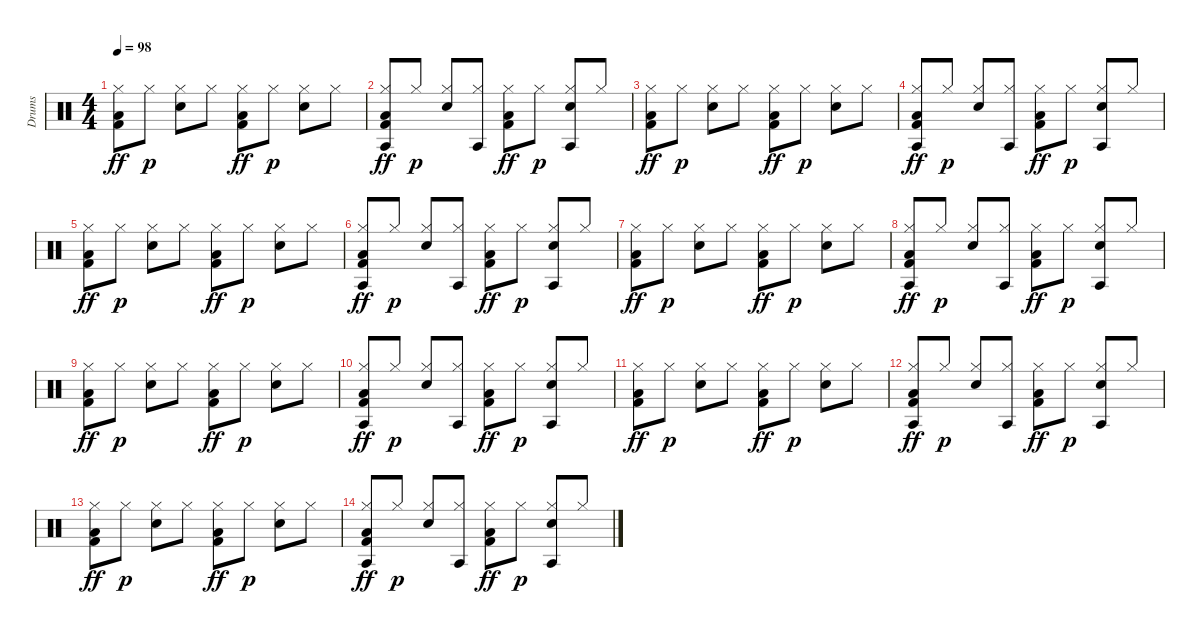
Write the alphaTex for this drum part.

\track ("Drums" "Drums") {instrument percussion}
\staff {score}
\articulation defaults
\ts (4 4)
\tempo 98
\clef neutral
\ks c
("Hi-Hat (closed)" "Low Floor Tom (hit)" "Kick (hit) 2").8{dy ff} "Hi-Hat (closed)".8{dy p} ("Hi-Hat (closed)" "Snare (hit) 2").8 "Hi-Hat (closed)".8 ("Hi-Hat (closed)" "Low Floor Tom (hit)" "Kick (hit) 2").8{dy ff} "Hi-Hat (closed)".8{dy p} ("Hi-Hat (closed)" "Snare (hit) 2").8 "Hi-Hat (closed)".8 |
("Agogo tow (hit)" "Hi-Hat (closed)" "Low Floor Tom (hit)" "Kick (hit) 2").8{dy ff} "Hi-Hat (closed)".8{dy p} ("Hi-Hat (closed)" "Snare (hit) 2").8 ("Agogo tow (hit)" "Hi-Hat (closed)").8 ("Hi-Hat (closed)" "Low Floor Tom (hit)" "Kick (hit) 2").8{dy ff} "Hi-Hat (closed)".8{dy p} ("Agogo tow (hit)" "Hi-Hat (closed)" "Snare (hit) 2").8 "Hi-Hat (closed)".8 |
("Hi-Hat (closed)" "Low Floor Tom (hit)" "Kick (hit) 2").8{dy ff} "Hi-Hat (closed)".8{dy p} ("Hi-Hat (closed)" "Snare (hit) 2").8 "Hi-Hat (closed)".8 ("Hi-Hat (closed)" "Low Floor Tom (hit)" "Kick (hit) 2").8{dy ff} "Hi-Hat (closed)".8{dy p} ("Hi-Hat (closed)" "Snare (hit) 2").8 "Hi-Hat (closed)".8 |
("Agogo tow (hit)" "Hi-Hat (closed)" "Low Floor Tom (hit)" "Kick (hit) 2").8{dy ff} "Hi-Hat (closed)".8{dy p} ("Hi-Hat (closed)" "Snare (hit) 2").8 ("Agogo tow (hit)" "Hi-Hat (closed)").8 ("Hi-Hat (closed)" "Low Floor Tom (hit)" "Kick (hit) 2").8{dy ff} "Hi-Hat (closed)".8{dy p} ("Agogo tow (hit)" "Hi-Hat (closed)" "Snare (hit) 2").8 "Hi-Hat (closed)".8 |
("Hi-Hat (closed)" "Low Floor Tom (hit)" "Kick (hit) 2").8{dy ff} "Hi-Hat (closed)".8{dy p} ("Hi-Hat (closed)" "Snare (hit) 2").8 "Hi-Hat (closed)".8 ("Hi-Hat (closed)" "Low Floor Tom (hit)" "Kick (hit) 2").8{dy ff} "Hi-Hat (closed)".8{dy p} ("Hi-Hat (closed)" "Snare (hit) 2").8 "Hi-Hat (closed)".8 |
("Agogo tow (hit)" "Hi-Hat (closed)" "Low Floor Tom (hit)" "Kick (hit) 2").8{dy ff} "Hi-Hat (closed)".8{dy p} ("Hi-Hat (closed)" "Snare (hit) 2").8 ("Agogo tow (hit)" "Hi-Hat (closed)").8 ("Hi-Hat (closed)" "Low Floor Tom (hit)" "Kick (hit) 2").8{dy ff} "Hi-Hat (closed)".8{dy p} ("Agogo tow (hit)" "Hi-Hat (closed)" "Snare (hit) 2").8 "Hi-Hat (closed)".8 |
("Hi-Hat (closed)" "Low Floor Tom (hit)" "Kick (hit) 2").8{dy ff} "Hi-Hat (closed)".8{dy p} ("Hi-Hat (closed)" "Snare (hit) 2").8 "Hi-Hat (closed)".8 ("Hi-Hat (closed)" "Low Floor Tom (hit)" "Kick (hit) 2").8{dy ff} "Hi-Hat (closed)".8{dy p} ("Hi-Hat (closed)" "Snare (hit) 2").8 "Hi-Hat (closed)".8 |
("Agogo tow (hit)" "Hi-Hat (closed)" "Low Floor Tom (hit)" "Kick (hit) 2").8{dy ff} "Hi-Hat (closed)".8{dy p} ("Hi-Hat (closed)" "Snare (hit) 2").8 ("Agogo tow (hit)" "Hi-Hat (closed)").8 ("Hi-Hat (closed)" "Low Floor Tom (hit)" "Kick (hit) 2").8{dy ff} "Hi-Hat (closed)".8{dy p} ("Agogo tow (hit)" "Hi-Hat (closed)" "Snare (hit) 2").8 "Hi-Hat (closed)".8 |
("Hi-Hat (closed)" "Low Floor Tom (hit)" "Kick (hit) 2").8{dy ff} "Hi-Hat (closed)".8{dy p} ("Hi-Hat (closed)" "Snare (hit) 2").8 "Hi-Hat (closed)".8 ("Hi-Hat (closed)" "Low Floor Tom (hit)" "Kick (hit) 2").8{dy ff} "Hi-Hat (closed)".8{dy p} ("Hi-Hat (closed)" "Snare (hit) 2").8 "Hi-Hat (closed)".8 |
("Agogo tow (hit)" "Hi-Hat (closed)" "Low Floor Tom (hit)" "Kick (hit) 2").8{dy ff} "Hi-Hat (closed)".8{dy p} ("Hi-Hat (closed)" "Snare (hit) 2").8 ("Agogo tow (hit)" "Hi-Hat (closed)").8 ("Hi-Hat (closed)" "Low Floor Tom (hit)" "Kick (hit) 2").8{dy ff} "Hi-Hat (closed)".8{dy p} ("Agogo tow (hit)" "Hi-Hat (closed)" "Snare (hit) 2").8 "Hi-Hat (closed)".8 |
("Hi-Hat (closed)" "Low Floor Tom (hit)" "Kick (hit) 2").8{dy ff volume 0} "Hi-Hat (closed)".8{dy p} ("Hi-Hat (closed)" "Snare (hit) 2").8 "Hi-Hat (closed)".8 ("Hi-Hat (closed)" "Low Floor Tom (hit)" "Kick (hit) 2").8{dy ff} "Hi-Hat (closed)".8{dy p} ("Hi-Hat (closed)" "Snare (hit) 2").8 "Hi-Hat (closed)".8 |
("Agogo tow (hit)" "Hi-Hat (closed)" "Low Floor Tom (hit)" "Kick (hit) 2").8{dy ff} "Hi-Hat (closed)".8{dy p} ("Hi-Hat (closed)" "Snare (hit) 2").8 ("Agogo tow (hit)" "Hi-Hat (closed)").8 ("Hi-Hat (closed)" "Low Floor Tom (hit)" "Kick (hit) 2").8{dy ff} "Hi-Hat (closed)".8{dy p} ("Agogo tow (hit)" "Hi-Hat (closed)" "Snare (hit) 2").8 "Hi-Hat (closed)".8 |
("Hi-Hat (closed)" "Low Floor Tom (hit)" "Kick (hit) 2").8{dy ff} "Hi-Hat (closed)".8{dy p} ("Hi-Hat (closed)" "Snare (hit) 2").8 "Hi-Hat (closed)".8 ("Hi-Hat (closed)" "Low Floor Tom (hit)" "Kick (hit) 2").8{dy ff} "Hi-Hat (closed)".8{dy p} ("Hi-Hat (closed)" "Snare (hit) 2").8 "Hi-Hat (closed)".8 |
("Agogo tow (hit)" "Hi-Hat (closed)" "Low Floor Tom (hit)" "Kick (hit) 2").8{dy ff} "Hi-Hat (closed)".8{dy p} ("Hi-Hat (closed)" "Snare (hit) 2").8 ("Agogo tow (hit)" "Hi-Hat (closed)").8 ("Hi-Hat (closed)" "Low Floor Tom (hit)" "Kick (hit) 2").8{dy ff} "Hi-Hat (closed)".8{dy p} ("Agogo tow (hit)" "Hi-Hat (closed)" "Snare (hit) 2").8 "Hi-Hat (closed)".8
